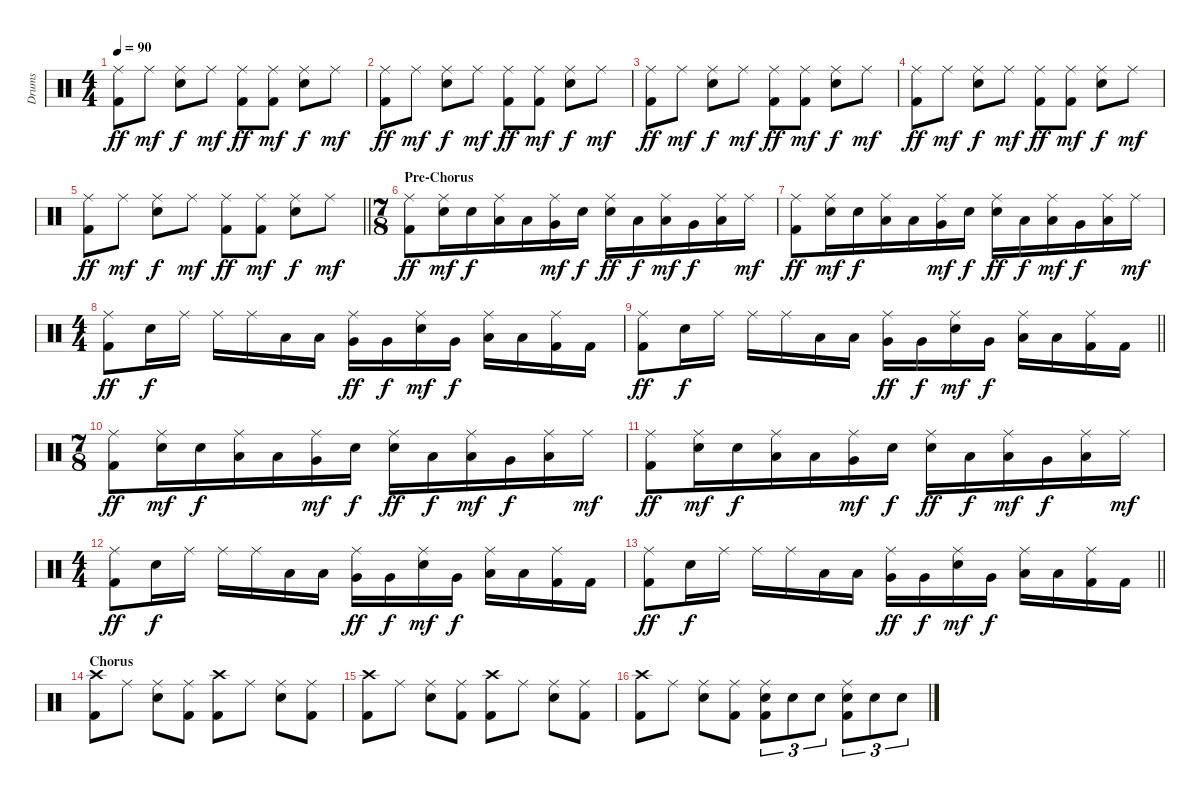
\track ("Drums" "Drums") {instrument percussion}
\staff {score}
\articulation defaults
\ts (4 4)
\tempo 90
\clef neutral
\ks c
("Ride (middle)" "Kick (hit) 2").8{dy ff} "Ride (middle)".8{dy mf} ("Ride (middle)" "Electric Snare (hit)").8{dy f} "Ride (middle)".8{dy mf} ("Ride (middle)" "Kick (hit) 2").8{dy ff} ("Ride (middle)" "Kick (hit) 2").8{dy mf} ("Ride (middle)" "Electric Snare (hit)").8{dy f} "Ride (middle)".8{dy mf} |
("Ride (middle)" "Kick (hit) 2").8{dy ff} "Ride (middle)".8{dy mf} ("Ride (middle)" "Electric Snare (hit)").8{dy f} "Ride (middle)".8{dy mf} ("Ride (middle)" "Kick (hit) 2").8{dy ff} ("Ride (middle)" "Kick (hit) 2").8{dy mf} ("Ride (middle)" "Electric Snare (hit)").8{dy f} "Ride (middle)".8{dy mf} |
("Ride (middle)" "Kick (hit) 2").8{dy ff} "Ride (middle)".8{dy mf} ("Ride (middle)" "Electric Snare (hit)").8{dy f} "Ride (middle)".8{dy mf} ("Ride (middle)" "Kick (hit) 2").8{dy ff} ("Ride (middle)" "Kick (hit) 2").8{dy mf} ("Ride (middle)" "Electric Snare (hit)").8{dy f} "Ride (middle)".8{dy mf} |
("Ride (middle)" "Kick (hit) 2").8{dy ff} "Ride (middle)".8{dy mf} ("Ride (middle)" "Electric Snare (hit)").8{dy f} "Ride (middle)".8{dy mf} ("Ride (middle)" "Kick (hit) 2").8{dy ff} ("Ride (middle)" "Kick (hit) 2").8{dy mf} ("Ride (middle)" "Electric Snare (hit)").8{dy f} "Ride (middle)".8{dy mf} |
\barLineRight lightlight
("Ride (middle)" "Kick (hit) 2").8{dy ff} "Ride (middle)".8{dy mf} ("Ride (middle)" "Electric Snare (hit)").8{dy f} "Ride (middle)".8{dy mf} ("Ride (middle)" "Kick (hit) 2").8{dy ff} ("Ride (middle)" "Kick (hit) 2").8{dy mf} ("Ride (middle)" "Electric Snare (hit)").8{dy f} "Ride (middle)".8{dy mf} |
\ts (7 8)
\section ("" "Pre-Chorus")
("Ride (middle)" "Kick (hit) 2").8{dy ff} ("Ride (middle)" "Electric Snare (hit)").16{dy mf} "Electric Snare (hit)".16{dy f} ("Ride (middle)" "Low Tom (hit)").16 "Low Tom (hit)".16 ("Ride (middle)" "Very Low Tom (hit)").16{dy mf} "Electric Snare (hit)".16{dy f} ("Ride (middle)" "Electric Snare (hit)").16{dy ff} "Low Tom (hit)".16{dy f} ("Ride (middle)" "Low Tom (hit)").16{dy mf} "Very Low Tom (hit)".16{dy f} ("Ride (middle)" "Low Tom (hit)").16 "Ride (middle)".16{dy mf} |
("Ride (middle)" "Kick (hit) 2").8{dy ff} ("Ride (middle)" "Electric Snare (hit)").16{dy mf} "Electric Snare (hit)".16{dy f} ("Ride (middle)" "Low Tom (hit)").16 "Low Tom (hit)".16 ("Ride (middle)" "Very Low Tom (hit)").16{dy mf} "Electric Snare (hit)".16{dy f} ("Ride (middle)" "Electric Snare (hit)").16{dy ff} "Low Tom (hit)".16{dy f} ("Ride (middle)" "Low Tom (hit)").16{dy mf} "Very Low Tom (hit)".16{dy f} ("Ride (middle)" "Low Tom (hit)").16 "Ride (middle)".16{dy mf} |
\ts (4 4)
("Ride (middle)" "Kick (hit) 2").8{dy ff} "Electric Snare (hit)".16{dy f} "Ride (middle)".16 "Ride (middle)".16 "Ride (middle)".16 "Low Tom (hit)".16 "Low Tom (hit)".16 ("Ride (middle)" "Very Low Tom (hit)").16{dy ff} "Very Low Tom (hit)".16{dy f} ("Ride (middle)" "Electric Snare (hit)").16{dy mf} "Very Low Tom (hit)".16{dy f} ("Ride (middle)" "Low Floor Tom (hit)").16 "Low Floor Tom (hit)".16 ("Ride (middle)" "Kick (hit) 2").16 "Kick (hit) 2".16 |
\barLineRight lightlight
("Ride (middle)" "Kick (hit) 2").8{dy ff} "Electric Snare (hit)".16{dy f} "Ride (middle)".16 "Ride (middle)".16 "Ride (middle)".16 "Low Tom (hit)".16 "Low Tom (hit)".16 ("Ride (middle)" "Very Low Tom (hit)").16{dy ff} "Very Low Tom (hit)".16{dy f} ("Ride (middle)" "Electric Snare (hit)").16{dy mf} "Very Low Tom (hit)".16{dy f} ("Ride (middle)" "Low Floor Tom (hit)").16 "Low Floor Tom (hit)".16 ("Ride (middle)" "Kick (hit) 2").16 "Kick (hit) 2".16 |
\ts (7 8)
("Ride (middle)" "Kick (hit) 2").8{dy ff} ("Ride (middle)" "Electric Snare (hit)").16{dy mf} "Electric Snare (hit)".16{dy f} ("Ride (middle)" "Low Tom (hit)").16 "Low Tom (hit)".16 ("Ride (middle)" "Very Low Tom (hit)").16{dy mf} "Electric Snare (hit)".16{dy f} ("Ride (middle)" "Electric Snare (hit)").16{dy ff} "Low Tom (hit)".16{dy f} ("Ride (middle)" "Low Tom (hit)").16{dy mf} "Very Low Tom (hit)".16{dy f} ("Ride (middle)" "Low Tom (hit)").16 "Ride (middle)".16{dy mf} |
("Ride (middle)" "Kick (hit) 2").8{dy ff} ("Ride (middle)" "Electric Snare (hit)").16{dy mf} "Electric Snare (hit)".16{dy f} ("Ride (middle)" "Low Tom (hit)").16 "Low Tom (hit)".16 ("Ride (middle)" "Very Low Tom (hit)").16{dy mf} "Electric Snare (hit)".16{dy f} ("Ride (middle)" "Electric Snare (hit)").16{dy ff} "Low Tom (hit)".16{dy f} ("Ride (middle)" "Low Tom (hit)").16{dy mf} "Very Low Tom (hit)".16{dy f} ("Ride (middle)" "Low Tom (hit)").16 "Ride (middle)".16{dy mf} |
\ts (4 4)
("Ride (middle)" "Kick (hit) 2").8{dy ff} "Electric Snare (hit)".16{dy f} "Ride (middle)".16 "Ride (middle)".16 "Ride (middle)".16 "Low Tom (hit)".16 "Low Tom (hit)".16 ("Ride (middle)" "Very Low Tom (hit)").16{dy ff} "Very Low Tom (hit)".16{dy f} ("Ride (middle)" "Electric Snare (hit)").16{dy mf} "Very Low Tom (hit)".16{dy f} ("Ride (middle)" "Low Floor Tom (hit)").16 "Low Floor Tom (hit)".16 ("Ride (middle)" "Kick (hit) 2").16 "Kick (hit) 2".16 |
\barLineRight lightlight
("Ride (middle)" "Kick (hit) 2").8{dy ff} "Electric Snare (hit)".16{dy f} "Ride (middle)".16 "Ride (middle)".16 "Ride (middle)".16 "Low Tom (hit)".16 "Low Tom (hit)".16 ("Ride (middle)" "Very Low Tom (hit)").16{dy ff} "Very Low Tom (hit)".16{dy f} ("Ride (middle)" "Electric Snare (hit)").16{dy mf} "Very Low Tom (hit)".16{dy f} ("Ride (middle)" "Low Floor Tom (hit)").16 "Low Floor Tom (hit)".16 ("Ride (middle)" "Kick (hit) 2").16 "Kick (hit) 2".16 |
\section ("" "Chorus")
("Crash high (hit)" "Kick (hit) 2").8 "Ride (middle)".8 ("Ride (middle)" "Electric Snare (hit)").8 ("Ride (middle)" "Kick (hit) 2").8 ("Crash high (hit)" "Kick (hit) 2").8 "Ride (middle)".8 ("Ride (middle)" "Electric Snare (hit)").8 ("Ride (middle)" "Kick (hit) 2").8 |
("Crash high (hit)" "Kick (hit) 2").8 "Ride (middle)".8 ("Ride (middle)" "Electric Snare (hit)").8 ("Ride (middle)" "Kick (hit) 2").8 ("Crash high (hit)" "Kick (hit) 2").8 "Ride (middle)".8 ("Ride (middle)" "Electric Snare (hit)").8 ("Ride (middle)" "Kick (hit) 2").8 |
("Crash high (hit)" "Kick (hit) 2").8 "Ride (middle)".8 ("Ride (middle)" "Electric Snare (hit)").8 ("Ride (middle)" "Kick (hit) 2").8 ("Ride (middle)" "Electric Snare (hit)" "Kick (hit) 2").8{tu (3 2)} "Electric Snare (hit)".8{tu (3 2)} "Electric Snare (hit)".8{tu (3 2)} ("Ride (middle)" "Electric Snare (hit)" "Kick (hit) 2").8{tu (3 2)} "Electric Snare (hit)".8{tu (3 2)} "Electric Snare (hit)".8{tu (3 2)}
